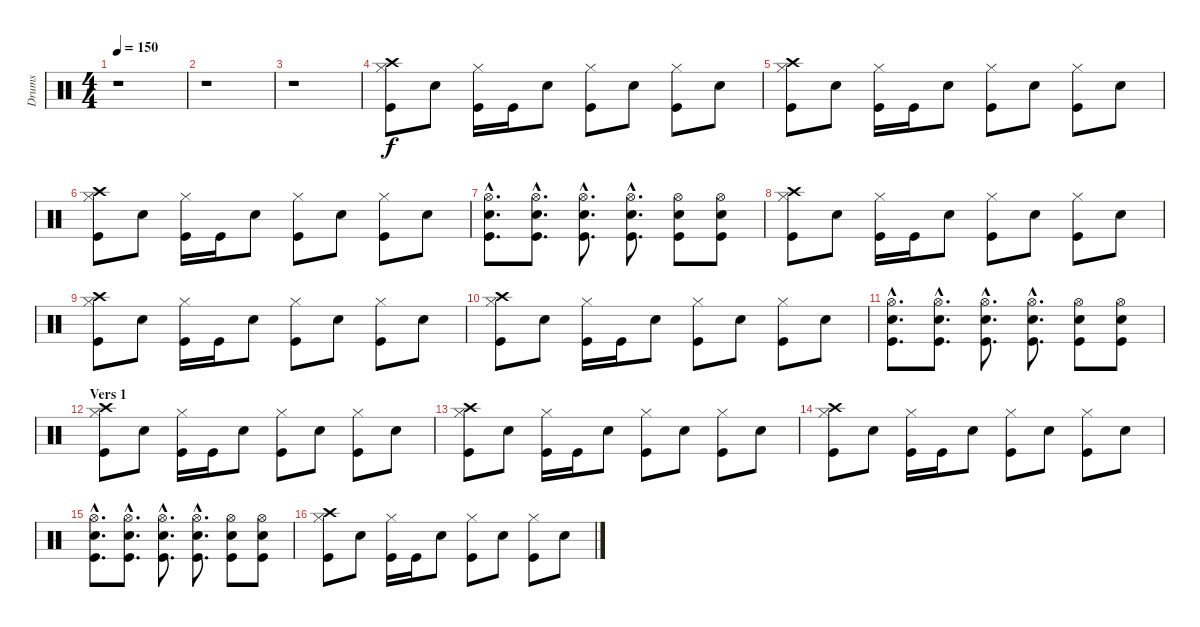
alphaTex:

\track ("Drums" "Drums") {instrument percussion}
\staff {score}
\articulation defaults
\ts (4 4)
\tempo 150
\clef neutral
\ks c
r.1{dy f} |
r.1 |
r.1 |
("Hi-Hat (closed)" "Crash high (hit)" "Kick (hit)").8 "Electric Snare (hit)".8 ("Hi-Hat (closed)" "Kick (hit)").16 "Kick (hit)".16 "Electric Snare (hit)".8 ("Hi-Hat (closed)" "Kick (hit)").8 "Electric Snare (hit)".8 ("Hi-Hat (closed)" "Kick (hit)").8 "Electric Snare (hit)".8 |
("Hi-Hat (closed)" "Crash high (hit)" "Kick (hit)").8 "Electric Snare (hit)".8 ("Hi-Hat (closed)" "Kick (hit)").16 "Kick (hit)".16 "Electric Snare (hit)".8 ("Hi-Hat (closed)" "Kick (hit)").8 "Electric Snare (hit)".8 ("Hi-Hat (closed)" "Kick (hit)").8 "Electric Snare (hit)".8 |
("Hi-Hat (closed)" "Crash high (hit)" "Kick (hit)").8 "Electric Snare (hit)".8 ("Hi-Hat (closed)" "Kick (hit)").16 "Kick (hit)".16 "Electric Snare (hit)".8 ("Hi-Hat (closed)" "Kick (hit)").8 "Electric Snare (hit)".8 ("Hi-Hat (closed)" "Kick (hit)").8 "Electric Snare (hit)".8 |
("Electric Snare (hit)"{hac} "Hi-Hat (open)"{hac} "Kick (hit)"{hac}).8{d} ("Electric Snare (hit)"{hac} "Hi-Hat (open)"{hac} "Kick (hit)"{hac}).8{d} ("Electric Snare (hit)"{hac} "Hi-Hat (open)"{hac} "Kick (hit)"{hac}).8{d} ("Electric Snare (hit)"{hac} "Hi-Hat (open)"{hac} "Kick (hit)"{hac}).8{d} ("Electric Snare (hit)" "Hi-Hat (open)" "Kick (hit)").8 ("Electric Snare (hit)" "Hi-Hat (open)" "Kick (hit)").8 |
("Hi-Hat (closed)" "Crash high (hit)" "Kick (hit)").8 "Electric Snare (hit)".8 ("Hi-Hat (closed)" "Kick (hit)").16 "Kick (hit)".16 "Electric Snare (hit)".8 ("Hi-Hat (closed)" "Kick (hit)").8 "Electric Snare (hit)".8 ("Hi-Hat (closed)" "Kick (hit)").8 "Electric Snare (hit)".8 |
("Hi-Hat (closed)" "Crash high (hit)" "Kick (hit)").8 "Electric Snare (hit)".8 ("Hi-Hat (closed)" "Kick (hit)").16 "Kick (hit)".16 "Electric Snare (hit)".8 ("Hi-Hat (closed)" "Kick (hit)").8 "Electric Snare (hit)".8 ("Hi-Hat (closed)" "Kick (hit)").8 "Electric Snare (hit)".8 |
("Hi-Hat (closed)" "Crash high (hit)" "Kick (hit)").8 "Electric Snare (hit)".8 ("Hi-Hat (closed)" "Kick (hit)").16 "Kick (hit)".16 "Electric Snare (hit)".8 ("Hi-Hat (closed)" "Kick (hit)").8 "Electric Snare (hit)".8 ("Hi-Hat (closed)" "Kick (hit)").8 "Electric Snare (hit)".8 |
("Electric Snare (hit)"{hac} "Hi-Hat (open)"{hac} "Kick (hit)"{hac}).8{d} ("Electric Snare (hit)"{hac} "Hi-Hat (open)"{hac} "Kick (hit)"{hac}).8{d} ("Electric Snare (hit)"{hac} "Hi-Hat (open)"{hac} "Kick (hit)"{hac}).8{d} ("Electric Snare (hit)"{hac} "Hi-Hat (open)"{hac} "Kick (hit)"{hac}).8{d} ("Electric Snare (hit)" "Hi-Hat (open)" "Kick (hit)").8 ("Electric Snare (hit)" "Hi-Hat (open)" "Kick (hit)").8 |
\section ("" "Vers 1")
("Hi-Hat (closed)" "Crash high (hit)" "Kick (hit)").8 "Electric Snare (hit)".8 ("Hi-Hat (closed)" "Kick (hit)").16 "Kick (hit)".16 "Electric Snare (hit)".8 ("Hi-Hat (closed)" "Kick (hit)").8 "Electric Snare (hit)".8 ("Hi-Hat (closed)" "Kick (hit)").8 "Electric Snare (hit)".8 |
("Hi-Hat (closed)" "Crash high (hit)" "Kick (hit)").8 "Electric Snare (hit)".8 ("Hi-Hat (closed)" "Kick (hit)").16 "Kick (hit)".16 "Electric Snare (hit)".8 ("Hi-Hat (closed)" "Kick (hit)").8 "Electric Snare (hit)".8 ("Hi-Hat (closed)" "Kick (hit)").8 "Electric Snare (hit)".8 |
("Hi-Hat (closed)" "Crash high (hit)" "Kick (hit)").8 "Electric Snare (hit)".8 ("Hi-Hat (closed)" "Kick (hit)").16 "Kick (hit)".16 "Electric Snare (hit)".8 ("Hi-Hat (closed)" "Kick (hit)").8 "Electric Snare (hit)".8 ("Hi-Hat (closed)" "Kick (hit)").8 "Electric Snare (hit)".8 |
("Electric Snare (hit)"{hac} "Hi-Hat (open)"{hac} "Kick (hit)"{hac}).8{d} ("Electric Snare (hit)"{hac} "Hi-Hat (open)"{hac} "Kick (hit)"{hac}).8{d} ("Electric Snare (hit)"{hac} "Hi-Hat (open)"{hac} "Kick (hit)"{hac}).8{d} ("Electric Snare (hit)"{hac} "Hi-Hat (open)"{hac} "Kick (hit)"{hac}).8{d} ("Electric Snare (hit)" "Hi-Hat (open)" "Kick (hit)").8 ("Electric Snare (hit)" "Hi-Hat (open)" "Kick (hit)").8 |
("Hi-Hat (closed)" "Crash high (hit)" "Kick (hit)").8 "Electric Snare (hit)".8 ("Hi-Hat (closed)" "Kick (hit)").16 "Kick (hit)".16 "Electric Snare (hit)".8 ("Hi-Hat (closed)" "Kick (hit)").8 "Electric Snare (hit)".8 ("Hi-Hat (closed)" "Kick (hit)").8 "Electric Snare (hit)".8
